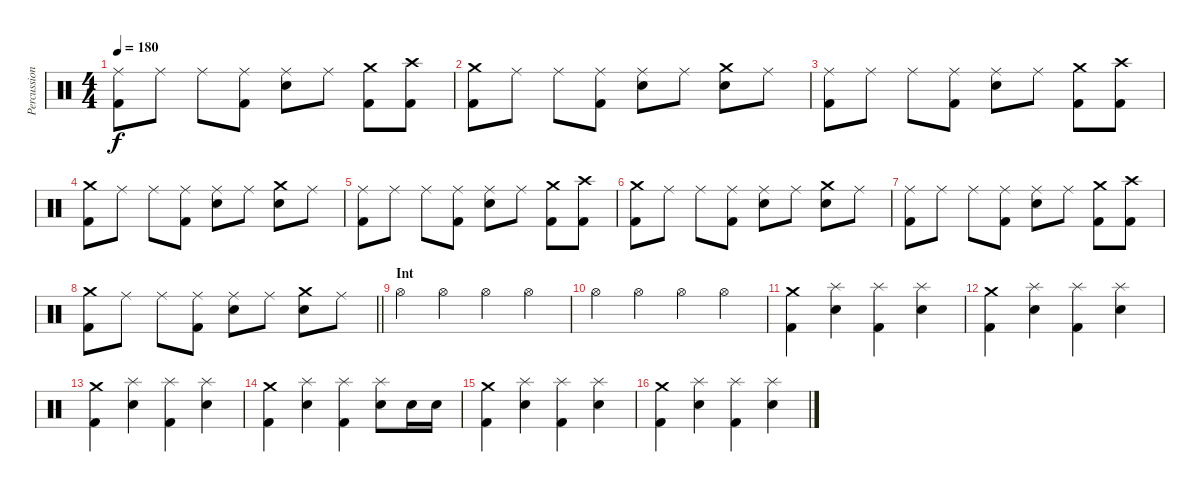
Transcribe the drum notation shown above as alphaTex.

\track ("Percussion" "Percussion") {instrument percussion}
\staff {score}
\articulation defaults
\ts (4 4)
\tempo 180
\clef neutral
\ks c
("Ride (middle)" "Kick (hit) 2").8{dy f} "Ride (middle)".8 "Ride (middle)".8 ("Ride (middle)" "Kick (hit) 2").8 ("Ride (middle)" "Electric Snare (hit)").8 "Ride (middle)".8 ("Crash medium (hit)" "Kick (hit) 2").8 ("Crash high (hit)" "Kick (hit) 2").8 |
("Crash medium (hit)" "Kick (hit) 2").8 "Ride (middle)".8 "Ride (middle)".8 ("Ride (middle)" "Kick (hit) 2").8 ("Ride (middle)" "Electric Snare (hit)").8 "Ride (middle)".8 ("Crash medium (hit)" "Electric Snare (hit)").8 "Ride (middle)".8 |
("Ride (middle)" "Kick (hit) 2").8 "Ride (middle)".8 "Ride (middle)".8 ("Ride (middle)" "Kick (hit) 2").8 ("Ride (middle)" "Electric Snare (hit)").8 "Ride (middle)".8 ("Crash medium (hit)" "Kick (hit) 2").8 ("Crash high (hit)" "Kick (hit) 2").8 |
("Crash medium (hit)" "Kick (hit) 2").8 "Ride (middle)".8 "Ride (middle)".8 ("Ride (middle)" "Kick (hit) 2").8 ("Ride (middle)" "Electric Snare (hit)").8 "Ride (middle)".8 ("Crash medium (hit)" "Electric Snare (hit)").8 "Ride (middle)".8 |
("Ride (middle)" "Kick (hit) 2").8 "Ride (middle)".8 "Ride (middle)".8 ("Ride (middle)" "Kick (hit) 2").8 ("Ride (middle)" "Electric Snare (hit)").8 "Ride (middle)".8 ("Crash medium (hit)" "Kick (hit) 2").8 ("Crash high (hit)" "Kick (hit) 2").8 |
("Crash medium (hit)" "Kick (hit) 2").8 "Ride (middle)".8 "Ride (middle)".8 ("Ride (middle)" "Kick (hit) 2").8 ("Ride (middle)" "Electric Snare (hit)").8 "Ride (middle)".8 ("Crash medium (hit)" "Electric Snare (hit)").8 "Ride (middle)".8 |
("Ride (middle)" "Kick (hit) 2").8 "Ride (middle)".8 "Ride (middle)".8 ("Ride (middle)" "Kick (hit) 2").8 ("Ride (middle)" "Electric Snare (hit)").8 "Ride (middle)".8 ("Crash medium (hit)" "Kick (hit) 2").8 ("Crash high (hit)" "Kick (hit) 2").8 |
\barLineRight lightlight
("Crash medium (hit)" "Kick (hit) 2").8 "Ride (middle)".8 "Ride (middle)".8 ("Ride (middle)" "Kick (hit) 2").8 ("Ride (middle)" "Electric Snare (hit)").8 "Ride (middle)".8 ("Crash medium (hit)" "Electric Snare (hit)").8 "Ride (middle)".8 |
\section ("" "Int")
"Hi-Hat (open)".4 "Hi-Hat (open)".4 "Hi-Hat (open)".4 "Hi-Hat (open)".4 |
"Hi-Hat (open)".4 "Hi-Hat (open)".4 "Hi-Hat (open)".4 "Hi-Hat (open)".4 |
("Crash medium (hit)" "Kick (hit) 2").4 ("Splash (hit)" "Electric Snare (hit)").4 ("Splash (hit)" "Kick (hit) 2").4 ("Splash (hit)" "Electric Snare (hit)").4 |
("Crash medium (hit)" "Kick (hit) 2").4 ("Splash (hit)" "Electric Snare (hit)").4 ("Splash (hit)" "Kick (hit) 2").4 ("Splash (hit)" "Electric Snare (hit)").4 |
("Crash medium (hit)" "Kick (hit) 2").4 ("Splash (hit)" "Electric Snare (hit)").4 ("Splash (hit)" "Kick (hit) 2").4 ("Splash (hit)" "Electric Snare (hit)").4 |
("Crash medium (hit)" "Kick (hit) 2").4 ("Splash (hit)" "Electric Snare (hit)").4 ("Splash (hit)" "Kick (hit) 2").4 ("Splash (hit)" "Electric Snare (hit)").8 "Electric Snare (hit)".16 "Electric Snare (hit)".16 |
("Crash medium (hit)" "Kick (hit) 2").4 ("Splash (hit)" "Electric Snare (hit)").4 ("Splash (hit)" "Kick (hit) 2").4 ("Splash (hit)" "Electric Snare (hit)").4 |
("Crash medium (hit)" "Kick (hit) 2").4 ("Splash (hit)" "Electric Snare (hit)").4 ("Splash (hit)" "Kick (hit) 2").4 ("Splash (hit)" "Electric Snare (hit)").4
